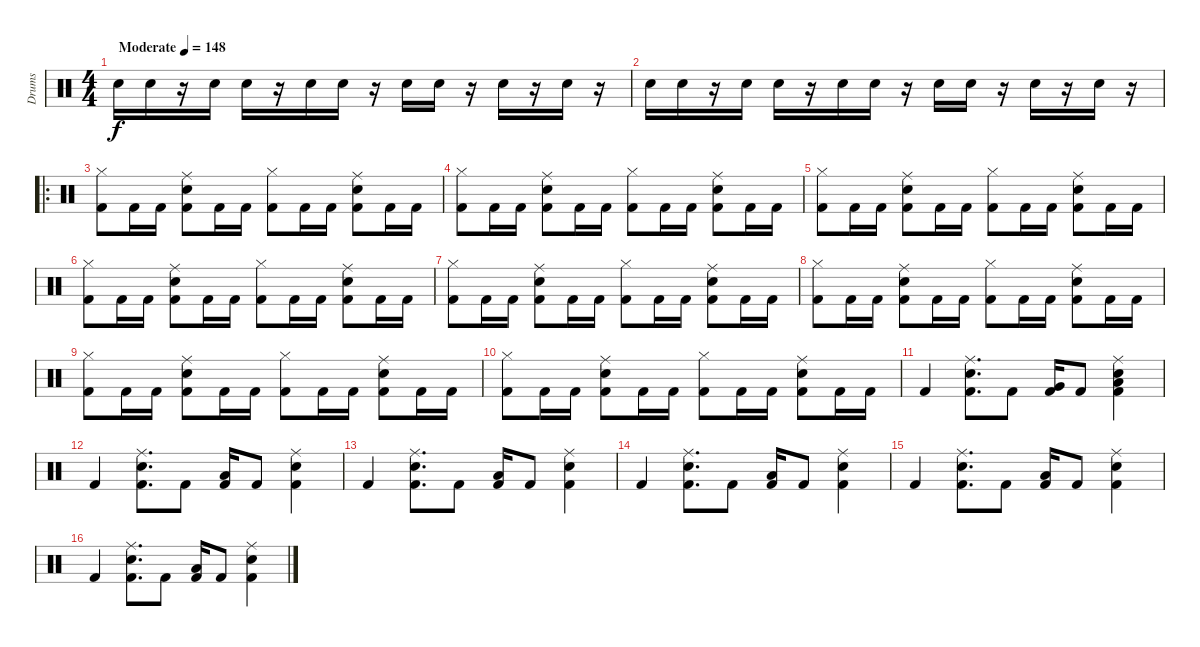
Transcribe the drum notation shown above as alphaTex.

\track ("Drums" "Drums") {instrument percussion}
\staff {score}
\articulation defaults
\ts (4 4)
\tempo (148 "Moderate")
\clef neutral
\ks c "Snare (hit) 2".16{dy f} "Snare (hit) 2".16
r.16 "Snare (hit) 2".16 "Snare (hit) 2".16 r.16 "Snare (hit) 2".16 "Snare (hit) 2".16 r.16 "Snare (hit) 2".16 "Snare (hit) 2".16 r.16 "Snare (hit) 2".16 r.16 "Snare (hit) 2".16 r.16 |
"Snare (hit) 2".16 "Snare (hit) 2".16 r.16 "Snare (hit) 2".16 "Snare (hit) 2".16 r.16 "Snare (hit) 2".16 "Snare (hit) 2".16 r.16 "Snare (hit) 2".16 "Snare (hit) 2".16 r.16 "Snare (hit) 2".16 r.16 "Snare (hit) 2".16 r.16 |
\ro
("Hi-Hat (closed)" "Kick (hit) 2").8 "Kick (hit) 2".16 "Kick (hit) 2".16 ("Ride (middle)" "Snare (hit) 2" "Kick (hit) 2").8 "Kick (hit) 2".16 "Kick (hit) 2".16 ("Hi-Hat (closed)" "Kick (hit) 2").8 "Kick (hit) 2".16 "Kick (hit) 2".16 ("Ride (middle)" "Snare (hit) 2" "Kick (hit) 2").8 "Kick (hit) 2".16 "Kick (hit) 2".16 |
("Hi-Hat (closed)" "Kick (hit) 2").8 "Kick (hit) 2".16 "Kick (hit) 2".16 ("Ride (middle)" "Snare (hit) 2" "Kick (hit) 2").8 "Kick (hit) 2".16 "Kick (hit) 2".16 ("Hi-Hat (closed)" "Kick (hit) 2").8 "Kick (hit) 2".16 "Kick (hit) 2".16 ("Ride (middle)" "Snare (hit) 2" "Kick (hit) 2").8 "Kick (hit) 2".16 "Kick (hit) 2".16 |
("Hi-Hat (closed)" "Kick (hit) 2").8 "Kick (hit) 2".16 "Kick (hit) 2".16 ("Ride (middle)" "Snare (hit) 2" "Kick (hit) 2").8 "Kick (hit) 2".16 "Kick (hit) 2".16 ("Hi-Hat (closed)" "Kick (hit) 2").8 "Kick (hit) 2".16 "Kick (hit) 2".16 ("Ride (middle)" "Snare (hit) 2" "Kick (hit) 2").8 "Kick (hit) 2".16 "Kick (hit) 2".16 |
("Hi-Hat (closed)" "Kick (hit) 2").8 "Kick (hit) 2".16 "Kick (hit) 2".16 ("Ride (middle)" "Snare (hit) 2" "Kick (hit) 2").8 "Kick (hit) 2".16 "Kick (hit) 2".16 ("Hi-Hat (closed)" "Kick (hit) 2").8 "Kick (hit) 2".16 "Kick (hit) 2".16 ("Ride (middle)" "Snare (hit) 2" "Kick (hit) 2").8 "Kick (hit) 2".16 "Kick (hit) 2".16 |
("Hi-Hat (closed)" "Kick (hit) 2").8 "Kick (hit) 2".16 "Kick (hit) 2".16 ("Ride (middle)" "Snare (hit) 2" "Kick (hit) 2").8 "Kick (hit) 2".16 "Kick (hit) 2".16 ("Hi-Hat (closed)" "Kick (hit) 2").8 "Kick (hit) 2".16 "Kick (hit) 2".16 ("Ride (middle)" "Snare (hit) 2" "Kick (hit) 2").8 "Kick (hit) 2".16 "Kick (hit) 2".16 |
("Hi-Hat (closed)" "Kick (hit) 2").8 "Kick (hit) 2".16 "Kick (hit) 2".16 ("Ride (middle)" "Snare (hit) 2" "Kick (hit) 2").8 "Kick (hit) 2".16 "Kick (hit) 2".16 ("Hi-Hat (closed)" "Kick (hit) 2").8 "Kick (hit) 2".16 "Kick (hit) 2".16 ("Ride (middle)" "Snare (hit) 2" "Kick (hit) 2").8 "Kick (hit) 2".16 "Kick (hit) 2".16 |
("Hi-Hat (closed)" "Kick (hit) 2").8 "Kick (hit) 2".16 "Kick (hit) 2".16 ("Ride (middle)" "Snare (hit) 2" "Kick (hit) 2").8 "Kick (hit) 2".16 "Kick (hit) 2".16 ("Hi-Hat (closed)" "Kick (hit) 2").8 "Kick (hit) 2".16 "Kick (hit) 2".16 ("Ride (middle)" "Snare (hit) 2" "Kick (hit) 2").8 "Kick (hit) 2".16 "Kick (hit) 2".16 |
("Hi-Hat (closed)" "Kick (hit) 2").8 "Kick (hit) 2".16 "Kick (hit) 2".16 ("Ride (middle)" "Snare (hit) 2" "Kick (hit) 2").8 "Kick (hit) 2".16 "Kick (hit) 2".16 ("Hi-Hat (closed)" "Kick (hit) 2").8 "Kick (hit) 2".16 "Kick (hit) 2".16 ("Ride (middle)" "Snare (hit) 2" "Kick (hit) 2").8 "Kick (hit) 2".16 "Kick (hit) 2".16 |
"Kick (hit) 2".4 ("Ride (middle)" "Snare (hit) 2" "Kick (hit) 2").8{d} "Kick (hit) 2".8 ("Very Low Tom (hit)" "Kick (hit) 2").16 "Kick (hit) 2".8 ("Ride (middle)" "Snare (hit) 2" "Kick (hit) 2" "Low Floor Tom (hit)").4 |
"Kick (hit) 2".4 ("Ride (middle)" "Snare (hit) 2" "Kick (hit) 2").8{d} "Kick (hit) 2".8 ("Low Floor Tom (hit)" "Kick (hit) 2").16 "Kick (hit) 2".8 ("Ride (middle)" "Snare (hit) 2" "Kick (hit) 2").4 |
"Kick (hit) 2".4 ("Ride (middle)" "Snare (hit) 2" "Kick (hit) 2").8{d} "Kick (hit) 2".8 ("Low Floor Tom (hit)" "Kick (hit) 2").16 "Kick (hit) 2".8 ("Ride (middle)" "Snare (hit) 2" "Kick (hit) 2").4 |
"Kick (hit) 2".4 ("Ride (middle)" "Snare (hit) 2" "Kick (hit) 2").8{d} "Kick (hit) 2".8 ("Low Floor Tom (hit)" "Kick (hit) 2").16 "Kick (hit) 2".8 ("Ride (middle)" "Snare (hit) 2" "Kick (hit) 2").4 |
"Kick (hit) 2".4 ("Ride (middle)" "Snare (hit) 2" "Kick (hit) 2").8{d} "Kick (hit) 2".8 ("Low Floor Tom (hit)" "Kick (hit) 2").16 "Kick (hit) 2".8 ("Ride (middle)" "Snare (hit) 2" "Kick (hit) 2").4 |
"Kick (hit) 2".4 ("Ride (middle)" "Snare (hit) 2" "Kick (hit) 2").8{d} "Kick (hit) 2".8 ("Low Floor Tom (hit)" "Kick (hit) 2").16 "Kick (hit) 2".8 ("Ride (middle)" "Snare (hit) 2" "Kick (hit) 2").4
